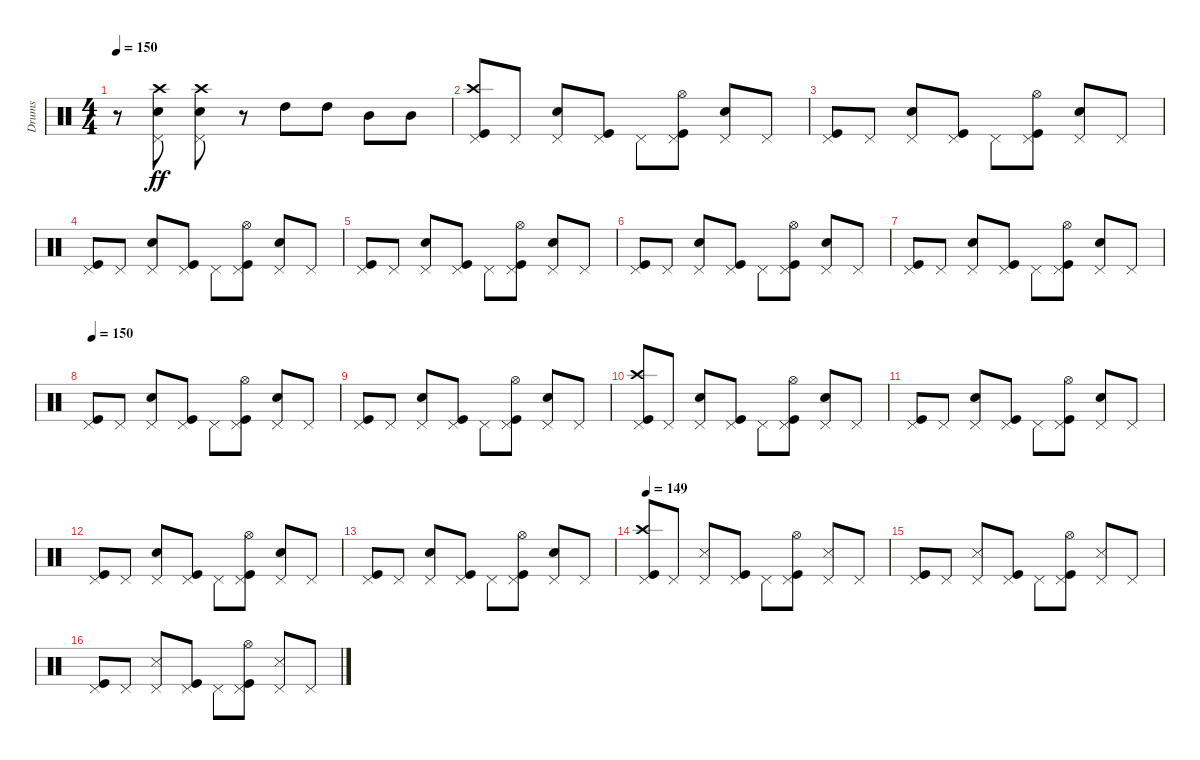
\track ("Drums" "Drums") {instrument percussion}
\staff {score}
\articulation defaults
\ts (4 4)
\tempo 150
\clef neutral
\ks c
r.8{dy ff} ("Pedal Hi-Hat (hit)" "Snare (hit) 2" "Crash high (hit)").8 ("Pedal Hi-Hat (hit)" "Snare (hit) 2" "Crash high (hit)").8 r.8 "High Tom (hit)".8 "High Tom (hit)".8 "Mid Tom (hit)".8 "Mid Tom (hit)".8 |
("Kick (hit)" "Pedal Hi-Hat (hit)" "Crash high (hit)").8 "Pedal Hi-Hat (hit)".8 ("Pedal Hi-Hat (hit)" "Snare (hit) 2").8 ("Kick (hit)" "Pedal Hi-Hat (hit)").8 "Pedal Hi-Hat (hit)".8 ("Kick (hit)" "Pedal Hi-Hat (hit)" "Hi-Hat (open)").8 ("Pedal Hi-Hat (hit)" "Snare (hit) 2").8 "Pedal Hi-Hat (hit)".8 |
("Kick (hit)" "Pedal Hi-Hat (hit)").8 "Pedal Hi-Hat (hit)".8 ("Pedal Hi-Hat (hit)" "Snare (hit) 2").8 ("Kick (hit)" "Pedal Hi-Hat (hit)").8 "Pedal Hi-Hat (hit)".8 ("Kick (hit)" "Pedal Hi-Hat (hit)" "Hi-Hat (open)").8 ("Pedal Hi-Hat (hit)" "Snare (hit) 2").8 "Pedal Hi-Hat (hit)".8 |
("Kick (hit)" "Pedal Hi-Hat (hit)").8 "Pedal Hi-Hat (hit)".8 ("Pedal Hi-Hat (hit)" "Snare (hit) 2").8 ("Kick (hit)" "Pedal Hi-Hat (hit)").8 "Pedal Hi-Hat (hit)".8 ("Kick (hit)" "Pedal Hi-Hat (hit)" "Hi-Hat (open)").8 ("Pedal Hi-Hat (hit)" "Snare (hit) 2").8 "Pedal Hi-Hat (hit)".8 |
("Kick (hit)" "Pedal Hi-Hat (hit)").8 "Pedal Hi-Hat (hit)".8 ("Pedal Hi-Hat (hit)" "Snare (hit) 2").8 ("Kick (hit)" "Pedal Hi-Hat (hit)").8 "Pedal Hi-Hat (hit)".8 ("Kick (hit)" "Pedal Hi-Hat (hit)" "Hi-Hat (open)").8 ("Pedal Hi-Hat (hit)" "Snare (hit) 2").8 "Pedal Hi-Hat (hit)".8 |
("Kick (hit)" "Pedal Hi-Hat (hit)").8 "Pedal Hi-Hat (hit)".8 ("Pedal Hi-Hat (hit)" "Snare (hit) 2").8 ("Kick (hit)" "Pedal Hi-Hat (hit)").8 "Pedal Hi-Hat (hit)".8 ("Kick (hit)" "Pedal Hi-Hat (hit)" "Hi-Hat (open)").8 ("Pedal Hi-Hat (hit)" "Snare (hit) 2").8 "Pedal Hi-Hat (hit)".8 |
("Kick (hit)" "Pedal Hi-Hat (hit)").8 "Pedal Hi-Hat (hit)".8 ("Pedal Hi-Hat (hit)" "Snare (hit) 2").8 ("Kick (hit)" "Pedal Hi-Hat (hit)").8 "Pedal Hi-Hat (hit)".8 ("Kick (hit)" "Pedal Hi-Hat (hit)" "Hi-Hat (open)").8 ("Pedal Hi-Hat (hit)" "Snare (hit) 2").8 "Pedal Hi-Hat (hit)".8 |
\tempo 150
("Kick (hit)" "Pedal Hi-Hat (hit)").8 "Pedal Hi-Hat (hit)".8 ("Pedal Hi-Hat (hit)" "Snare (hit) 2").8 ("Kick (hit)" "Pedal Hi-Hat (hit)").8 "Pedal Hi-Hat (hit)".8 ("Kick (hit)" "Pedal Hi-Hat (hit)" "Hi-Hat (open)").8 ("Pedal Hi-Hat (hit)" "Snare (hit) 2").8 "Pedal Hi-Hat (hit)".8 |
("Kick (hit)" "Pedal Hi-Hat (hit)").8 "Pedal Hi-Hat (hit)".8 ("Pedal Hi-Hat (hit)" "Snare (hit) 2").8 ("Kick (hit)" "Pedal Hi-Hat (hit)").8 "Pedal Hi-Hat (hit)".8 ("Kick (hit)" "Pedal Hi-Hat (hit)" "Hi-Hat (open)").8 ("Pedal Hi-Hat (hit)" "Snare (hit) 2").8 "Pedal Hi-Hat (hit)".8 |
("Kick (hit)" "Pedal Hi-Hat (hit)" "Crash high (hit)").8 "Pedal Hi-Hat (hit)".8 ("Pedal Hi-Hat (hit)" "Snare (hit) 2").8 ("Kick (hit)" "Pedal Hi-Hat (hit)").8 "Pedal Hi-Hat (hit)".8 ("Kick (hit)" "Pedal Hi-Hat (hit)" "Hi-Hat (open)").8 ("Pedal Hi-Hat (hit)" "Snare (hit) 2").8 "Pedal Hi-Hat (hit)".8 |
("Kick (hit)" "Pedal Hi-Hat (hit)").8 "Pedal Hi-Hat (hit)".8 ("Pedal Hi-Hat (hit)" "Snare (hit) 2").8 ("Kick (hit)" "Pedal Hi-Hat (hit)").8 "Pedal Hi-Hat (hit)".8 ("Kick (hit)" "Pedal Hi-Hat (hit)" "Hi-Hat (open)").8 ("Pedal Hi-Hat (hit)" "Snare (hit) 2").8 "Pedal Hi-Hat (hit)".8 |
("Kick (hit)" "Pedal Hi-Hat (hit)").8 "Pedal Hi-Hat (hit)".8 ("Pedal Hi-Hat (hit)" "Snare (hit) 2").8 ("Kick (hit)" "Pedal Hi-Hat (hit)").8 "Pedal Hi-Hat (hit)".8 ("Kick (hit)" "Pedal Hi-Hat (hit)" "Hi-Hat (open)").8 ("Pedal Hi-Hat (hit)" "Snare (hit) 2").8 "Pedal Hi-Hat (hit)".8 |
("Kick (hit)" "Pedal Hi-Hat (hit)").8 "Pedal Hi-Hat (hit)".8 ("Pedal Hi-Hat (hit)" "Snare (hit) 2").8 ("Kick (hit)" "Pedal Hi-Hat (hit)").8 "Pedal Hi-Hat (hit)".8 ("Kick (hit)" "Pedal Hi-Hat (hit)" "Hi-Hat (open)").8 ("Pedal Hi-Hat (hit)" "Snare (hit) 2").8 "Pedal Hi-Hat (hit)".8 |
\tempo 149
("Kick (hit)" "Pedal Hi-Hat (hit)" "Crash high (hit)").8 "Pedal Hi-Hat (hit)".8 ("Pedal Hi-Hat (hit)" "Metronome (hit)").8 ("Kick (hit)" "Pedal Hi-Hat (hit)").8 "Pedal Hi-Hat (hit)".8 ("Kick (hit)" "Pedal Hi-Hat (hit)" "Hi-Hat (open)").8 ("Pedal Hi-Hat (hit)" "Metronome (hit)").8 "Pedal Hi-Hat (hit)".8 |
("Kick (hit)" "Pedal Hi-Hat (hit)").8 "Pedal Hi-Hat (hit)".8 ("Pedal Hi-Hat (hit)" "Metronome (hit)").8 ("Kick (hit)" "Pedal Hi-Hat (hit)").8 "Pedal Hi-Hat (hit)".8 ("Kick (hit)" "Pedal Hi-Hat (hit)" "Hi-Hat (open)").8 ("Pedal Hi-Hat (hit)" "Metronome (hit)").8 "Pedal Hi-Hat (hit)".8 |
("Kick (hit)" "Pedal Hi-Hat (hit)").8 "Pedal Hi-Hat (hit)".8 ("Pedal Hi-Hat (hit)" "Metronome (hit)").8 ("Kick (hit)" "Pedal Hi-Hat (hit)").8 "Pedal Hi-Hat (hit)".8 ("Kick (hit)" "Pedal Hi-Hat (hit)" "Hi-Hat (open)").8 ("Pedal Hi-Hat (hit)" "Metronome (hit)").8 "Pedal Hi-Hat (hit)".8
